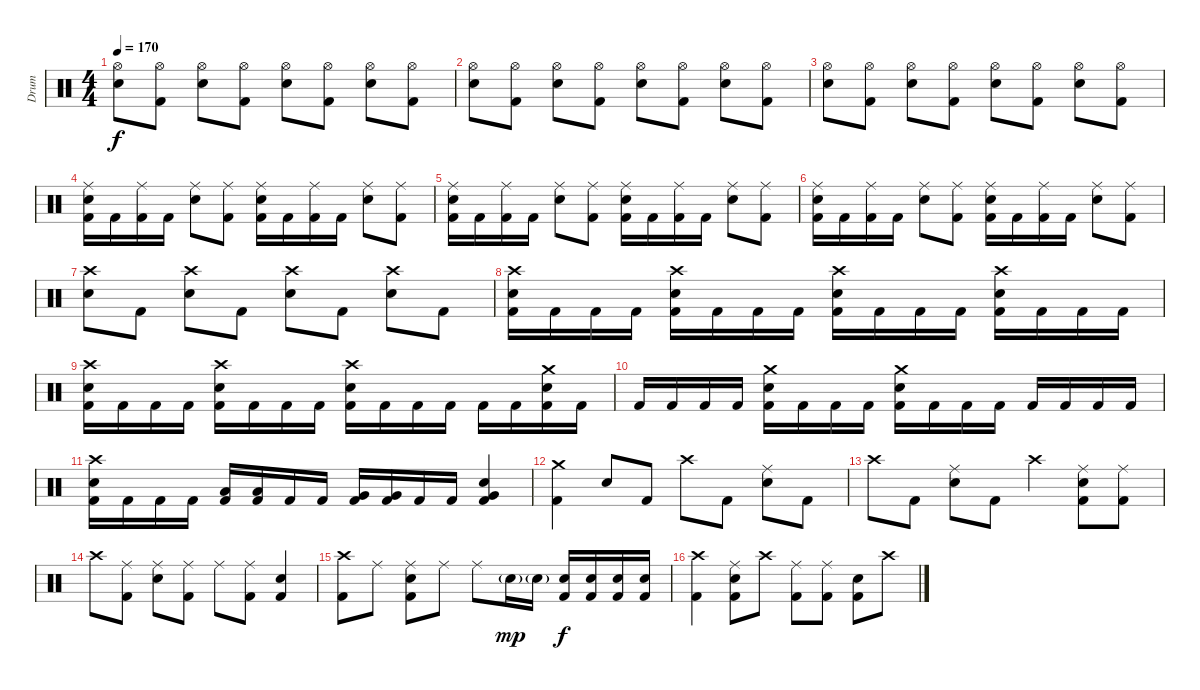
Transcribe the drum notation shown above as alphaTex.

\track ("Drum" "Drum") {instrument percussion}
\staff {score}
\articulation defaults
\ts (4 4)
\tempo 170
\clef neutral
\ks c
("Hi-Hat (open)" "Electric Snare (hit)").8{dy f} ("Hi-Hat (open)" "Kick (hit) 2").8 ("Hi-Hat (open)" "Electric Snare (hit)").8 ("Hi-Hat (open)" "Kick (hit) 2").8 ("Hi-Hat (open)" "Electric Snare (hit)").8 ("Hi-Hat (open)" "Kick (hit) 2").8 ("Hi-Hat (open)" "Electric Snare (hit)").8 ("Hi-Hat (open)" "Kick (hit) 2").8 |
("Hi-Hat (open)" "Electric Snare (hit)").8 ("Hi-Hat (open)" "Kick (hit) 2").8 ("Hi-Hat (open)" "Electric Snare (hit)").8 ("Hi-Hat (open)" "Kick (hit) 2").8 ("Hi-Hat (open)" "Electric Snare (hit)").8 ("Hi-Hat (open)" "Kick (hit) 2").8 ("Hi-Hat (open)" "Electric Snare (hit)").8 ("Hi-Hat (open)" "Kick (hit) 2").8 |
("Hi-Hat (open)" "Electric Snare (hit)").8 ("Hi-Hat (open)" "Kick (hit) 2").8 ("Hi-Hat (open)" "Electric Snare (hit)").8 ("Hi-Hat (open)" "Kick (hit) 2").8 ("Hi-Hat (open)" "Electric Snare (hit)").8 ("Hi-Hat (open)" "Kick (hit) 2").8 ("Hi-Hat (open)" "Electric Snare (hit)").8 ("Hi-Hat (open)" "Kick (hit) 2").8 |
("Ride (middle)" "Electric Snare (hit)" "Kick (hit) 2").16 "Kick (hit) 2".16 ("Ride (middle)" "Kick (hit) 2").16 "Kick (hit) 2".16 ("Ride (middle)" "Electric Snare (hit)").8 ("Ride (middle)" "Kick (hit) 2").8 ("Ride (middle)" "Electric Snare (hit)" "Kick (hit) 2").16 "Kick (hit) 2".16 ("Ride (middle)" "Kick (hit) 2").16 "Kick (hit) 2".16 ("Ride (middle)" "Electric Snare (hit)").8 ("Ride (middle)" "Kick (hit) 2").8 |
("Ride (middle)" "Electric Snare (hit)" "Kick (hit) 2").16 "Kick (hit) 2".16 ("Ride (middle)" "Kick (hit) 2").16 "Kick (hit) 2".16 ("Ride (middle)" "Electric Snare (hit)").8 ("Ride (middle)" "Kick (hit) 2").8 ("Ride (middle)" "Electric Snare (hit)" "Kick (hit) 2").16 "Kick (hit) 2".16 ("Ride (middle)" "Kick (hit) 2").16 "Kick (hit) 2".16 ("Ride (middle)" "Electric Snare (hit)").8 ("Ride (middle)" "Kick (hit) 2").8 |
("Ride (middle)" "Electric Snare (hit)" "Kick (hit) 2").16 "Kick (hit) 2".16 ("Ride (middle)" "Kick (hit) 2").16 "Kick (hit) 2".16 ("Ride (middle)" "Electric Snare (hit)").8 ("Ride (middle)" "Kick (hit) 2").8 ("Ride (middle)" "Electric Snare (hit)" "Kick (hit) 2").16 "Kick (hit) 2".16 ("Ride (middle)" "Kick (hit) 2").16 "Kick (hit) 2".16 ("Ride (middle)" "Electric Snare (hit)").8 ("Ride (middle)" "Kick (hit) 2").8 |
("Crash high (hit)" "Electric Snare (hit)").8 "Kick (hit) 2".8 ("Crash high (hit)" "Electric Snare (hit)").8 "Kick (hit) 2".8 ("Crash high (hit)" "Electric Snare (hit)").8 "Kick (hit) 2".8 ("Crash high (hit)" "Electric Snare (hit)").8 "Kick (hit) 2".8 |
("Crash high (hit)" "Electric Snare (hit)" "Kick (hit) 2").16 "Kick (hit) 2".16 "Kick (hit) 2".16 "Kick (hit) 2".16 ("Crash high (hit)" "Electric Snare (hit)" "Kick (hit) 2").16 "Kick (hit) 2".16 "Kick (hit) 2".16 "Kick (hit) 2".16 ("Crash high (hit)" "Electric Snare (hit)" "Kick (hit) 2").16 "Kick (hit) 2".16 "Kick (hit) 2".16 "Kick (hit) 2".16 ("Crash high (hit)" "Electric Snare (hit)" "Kick (hit) 2").16 "Kick (hit) 2".16 "Kick (hit) 2".16 "Kick (hit) 2".16 |
("Crash high (hit)" "Electric Snare (hit)" "Kick (hit) 2").16 "Kick (hit) 2".16 "Kick (hit) 2".16 "Kick (hit) 2".16 ("Crash high (hit)" "Electric Snare (hit)" "Kick (hit) 2").16 "Kick (hit) 2".16 "Kick (hit) 2".16 "Kick (hit) 2".16 ("Crash high (hit)" "Electric Snare (hit)" "Kick (hit) 2").16 "Kick (hit) 2".16 "Kick (hit) 2".16 "Kick (hit) 2".16 "Kick (hit) 2".16 "Kick (hit) 2".16 ("Crash medium (hit)" "Electric Snare (hit)" "Kick (hit) 2").16 "Kick (hit) 2".16 |
"Kick (hit) 2".16 "Kick (hit) 2".16 "Kick (hit) 2".16 "Kick (hit) 2".16 ("Crash medium (hit)" "Electric Snare (hit)" "Kick (hit) 2").16 "Kick (hit) 2".16 "Kick (hit) 2".16 "Kick (hit) 2".16 ("Crash medium (hit)" "Electric Snare (hit)" "Kick (hit) 2").16 "Kick (hit) 2".16 "Kick (hit) 2".16 "Kick (hit) 2".16 "Kick (hit) 2".16 "Kick (hit) 2".16 "Kick (hit) 2".16 "Kick (hit) 2".16 |
("Crash high (hit)" "Electric Snare (hit)" "Kick (hit) 2").16 "Kick (hit) 2".16 "Kick (hit) 2".16 "Kick (hit) 2".16 ("Low Tom (hit)" "Kick (hit) 2").16 ("Low Tom (hit)" "Kick (hit) 2").16 "Kick (hit) 2".16 "Kick (hit) 2".16 ("Very Low Tom (hit)" "Kick (hit) 2").16 ("Very Low Tom (hit)" "Kick (hit) 2").16 "Kick (hit) 2".16 "Kick (hit) 2".16 ("Electric Snare (hit)" "Very Low Tom (hit)" "Kick (hit) 2").4 |
("Crash medium (hit)" "Kick (hit) 2").4 "Electric Snare (hit)".8 "Kick (hit) 2".8 "Crash high (hit)".8 "Kick (hit) 2".8 ("Ride (middle)" "Electric Snare (hit)").8 "Kick (hit) 2".8 |
"Crash high (hit)".8 "Kick (hit) 2".8 ("Ride (middle)" "Electric Snare (hit)").8 "Kick (hit) 2".8 "Crash high (hit)".4 ("Ride (middle)" "Electric Snare (hit)" "Kick (hit) 2").8 ("Ride (middle)" "Kick (hit) 2").8 |
"Crash high (hit)".8 ("Ride (middle)" "Kick (hit) 2").8 ("Ride (middle)" "Electric Snare (hit)").8 ("Ride (middle)" "Kick (hit) 2").8 "Ride (middle)".8 ("Ride (middle)" "Kick (hit) 2").8 ("Electric Snare (hit)" "Kick (hit) 2").4 |
("Crash high (hit)" "Kick (hit) 2").8 "Ride (middle)".8 ("Ride (middle)" "Electric Snare (hit)" "Kick (hit) 2").8 "Ride (middle)".8 "Ride (middle)".8 "Electric Snare (hit)"{g}.16{dy mp} "Electric Snare (hit)"{g}.16 ("Electric Snare (hit)" "Kick (hit) 2").16{dy f} ("Electric Snare (hit)" "Kick (hit) 2").16 ("Electric Snare (hit)" "Kick (hit) 2").16 ("Electric Snare (hit)" "Kick (hit) 2").16 |
("Crash high (hit)" "Kick (hit) 2").4 ("Ride (middle)" "Electric Snare (hit)" "Kick (hit) 2").8 "Crash high (hit)".8 ("Ride (middle)" "Kick (hit) 2").8 ("Ride (middle)" "Kick (hit) 2").8 ("Electric Snare (hit)" "Kick (hit) 2").8 "Crash high (hit)".8
